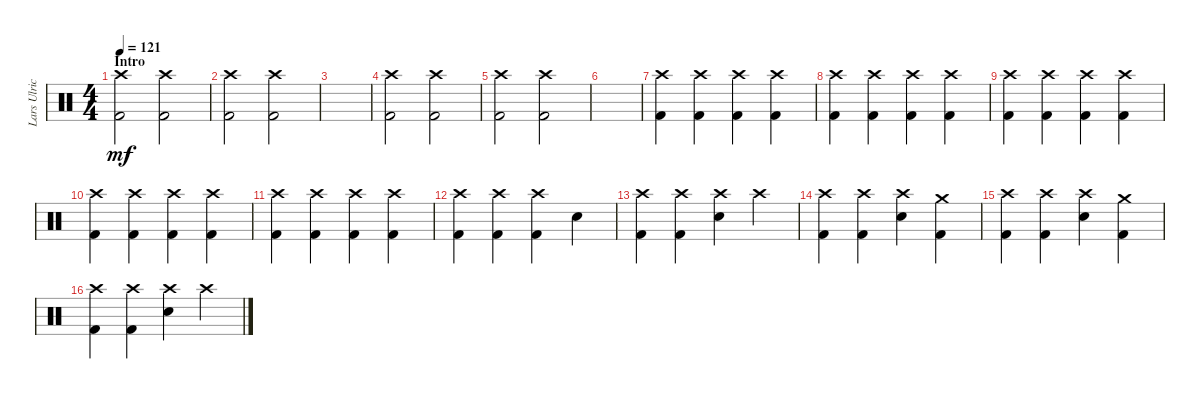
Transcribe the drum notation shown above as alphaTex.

\track ("Lars Ulrich" "Lars Ulric") {instrument percussion}
\staff {score}
\articulation defaults
\ts (4 4)
\section ("" "Intro")
\tempo 121
\clef neutral
\ks c
("Crash high (hit)" "Kick (hit) 2").2{dy mf} ("Crash high (hit)" "Kick (hit) 2").2 |
("Crash high (hit)" "Kick (hit) 2").2 ("Crash high (hit)" "Kick (hit) 2").2 |
|
("Crash high (hit)" "Kick (hit) 2").2 ("Crash high (hit)" "Kick (hit) 2").2 |
("Crash high (hit)" "Kick (hit) 2").2 ("Crash high (hit)" "Kick (hit) 2").2 |
|
("Crash high (hit)" "Kick (hit) 2").4 ("Crash high (hit)" "Kick (hit) 2").4 ("Crash high (hit)" "Kick (hit) 2").4 ("Crash high (hit)" "Kick (hit) 2").4 |
("Crash high (hit)" "Kick (hit) 2").4 ("Crash high (hit)" "Kick (hit) 2").4 ("Crash high (hit)" "Kick (hit) 2").4 ("Crash high (hit)" "Kick (hit) 2").4 |
("Crash high (hit)" "Kick (hit) 2").4 ("Crash high (hit)" "Kick (hit) 2").4 ("Crash high (hit)" "Kick (hit) 2").4 ("Crash high (hit)" "Kick (hit) 2").4 |
("Crash high (hit)" "Kick (hit) 2").4 ("Crash high (hit)" "Kick (hit) 2").4 ("Crash high (hit)" "Kick (hit) 2").4 ("Crash high (hit)" "Kick (hit) 2").4 |
("Crash high (hit)" "Kick (hit) 2").4 ("Crash high (hit)" "Kick (hit) 2").4 ("Crash high (hit)" "Kick (hit) 2").4 ("Crash high (hit)" "Kick (hit) 2").4 |
("Crash high (hit)" "Kick (hit) 2").4 ("Crash high (hit)" "Kick (hit) 2").4 ("Crash high (hit)" "Kick (hit) 2").4 "Snare (hit) 2".4 |
("Crash high (hit)" "Kick (hit) 2").4 ("Crash high (hit)" "Kick (hit) 2").4 ("Crash high (hit)" "Snare (hit) 2").4 "Crash high (hit)".4 |
("Crash high (hit)" "Kick (hit) 2").4 ("Crash high (hit)" "Kick (hit) 2").4 ("Crash high (hit)" "Snare (hit) 2").4 ("Crash medium (hit)" "Kick (hit) 2").4 |
("Crash high (hit)" "Kick (hit) 2").4 ("Crash high (hit)" "Kick (hit) 2").4 ("Crash high (hit)" "Snare (hit) 2").4 ("Crash medium (hit)" "Kick (hit) 2").4 |
("Crash high (hit)" "Kick (hit) 2").4 ("Crash high (hit)" "Kick (hit) 2").4 ("Crash high (hit)" "Snare (hit) 2").4 "Crash high (hit)".4
